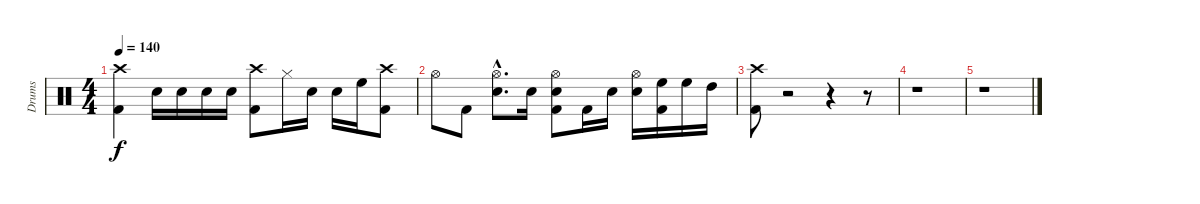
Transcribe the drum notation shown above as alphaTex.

\track ("Drums" "Drums") {instrument percussion}
\staff {score}
\articulation defaults
\ts (4 4)
\tempo 140
\clef neutral
\ks c
("Crash high (hit)" "Kick (hit) 2").4{dy f} "Electric Snare (hit)".16 "Electric Snare (hit)".16 "Electric Snare (hit)".16 "Electric Snare (hit)".16 ("Crash high (hit)" "Kick (hit) 2").8 "Hi-Hat (closed)".16 "Electric Snare (hit)".16 "Electric Snare (hit)".16 "High Floor Tom (hit)".16 ("Crash high (hit)" "Kick (hit) 2").8 |
"Hi-Hat (open)".8 "Kick (hit) 2".8 ("Hi-Hat (open)"{hac} "Electric Snare (hit)"{hac}).8{d} "Electric Snare (hit)".16 ("Hi-Hat (open)" "Electric Snare (hit)" "Kick (hit) 2").8 "Kick (hit) 2".16 "Electric Snare (hit)".16 ("Hi-Hat (open)" "Electric Snare (hit)").16 ("High Floor Tom (hit)" "Kick (hit) 2").16 "High Floor Tom (hit)".16 "High Tom (hit)".16 |
("Crash high (hit)" "Kick (hit) 2").8 r.2 r.4 r.8 |
r.1 |
r.1
